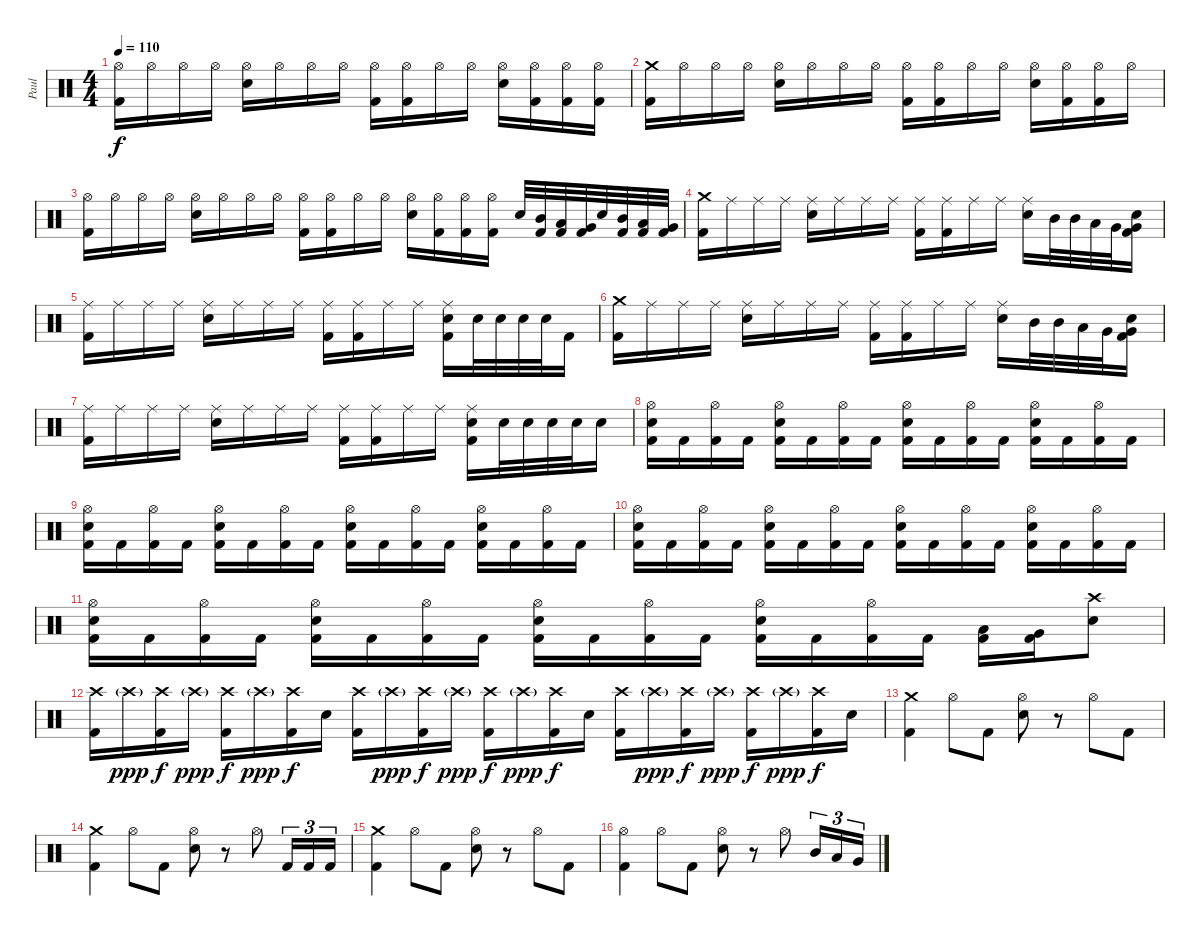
\track ("Paul" "Paul") {solo instrument percussion}
\staff {score}
\articulation defaults
\ts (4 4)
\tempo 110
\clef neutral
\ks c
("Hi-Hat (open)" "Kick (hit) 2").16{dy f} "Hi-Hat (open)".16 "Hi-Hat (open)".16 "Hi-Hat (open)".16 ("Hi-Hat (open)" "Electric Snare (hit)").16 "Hi-Hat (open)".16 "Hi-Hat (open)".16 "Hi-Hat (open)".16 ("Hi-Hat (open)" "Kick (hit) 2").16 ("Hi-Hat (open)" "Kick (hit) 2").16 "Hi-Hat (open)".16 "Hi-Hat (open)".16 ("Hi-Hat (open)" "Electric Snare (hit)").16 ("Hi-Hat (open)" "Kick (hit) 2").16 ("Hi-Hat (open)" "Kick (hit) 2").16 ("Hi-Hat (open)" "Kick (hit) 2").16 |
("Crash medium (hit)" "Kick (hit) 2").16 "Hi-Hat (open)".16 "Hi-Hat (open)".16 "Hi-Hat (open)".16 ("Hi-Hat (open)" "Electric Snare (hit)").16 "Hi-Hat (open)".16 "Hi-Hat (open)".16 "Hi-Hat (open)".16 ("Hi-Hat (open)" "Kick (hit) 2").16 ("Hi-Hat (open)" "Kick (hit) 2").16 "Hi-Hat (open)".16 "Hi-Hat (open)".16 ("Hi-Hat (open)" "Electric Snare (hit)").16 ("Hi-Hat (open)" "Kick (hit) 2").16 ("Hi-Hat (open)" "Kick (hit) 2").16 "Hi-Hat (open)".16 |
("Hi-Hat (open)" "Kick (hit) 2").16 "Hi-Hat (open)".16 "Hi-Hat (open)".16 "Hi-Hat (open)".16 ("Hi-Hat (open)" "Electric Snare (hit)").16 "Hi-Hat (open)".16 "Hi-Hat (open)".16 "Hi-Hat (open)".16 ("Hi-Hat (open)" "Kick (hit) 2").16 ("Hi-Hat (open)" "Kick (hit) 2").16 "Hi-Hat (open)".16 "Hi-Hat (open)".16 ("Hi-Hat (open)" "Electric Snare (hit)").16 ("Hi-Hat (open)" "Kick (hit) 2").16 ("Hi-Hat (open)" "Kick (hit) 2").16 ("Hi-Hat (open)" "Kick (hit) 2").16 "Electric Snare (hit)".32 ("Mid Tom (hit)" "Kick (hit) 2").32 ("Low Tom (hit)" "Kick (hit) 2").32 ("Very Low Tom (hit)" "Kick (hit) 2").32 "Electric Snare (hit)".32 ("Mid Tom (hit)" "Kick (hit) 2").32 ("Low Tom (hit)" "Kick (hit) 2").32 ("Very Low Tom (hit)" "Kick (hit) 2").32 |
("Crash medium (hit)" "Kick (hit) 2").16 "Ride (middle)".16 "Ride (middle)".16 "Ride (middle)".16 ("Ride (middle)" "Electric Snare (hit)").16 "Ride (middle)".16 "Ride (middle)".16 "Ride (middle)".16 ("Ride (middle)" "Kick (hit) 2").16 ("Ride (middle)" "Kick (hit) 2").16 "Ride (middle)".16 "Ride (middle)".16 ("Ride (middle)" "Electric Snare (hit)").16 "Mid Tom (hit)".32 "Mid Tom (hit)".32 "Low Tom (hit)".32 "Very Low Tom (hit)".32 ("Very Low Tom (hit)" "Electric Snare (hit)" "Kick (hit) 2").16 |
("Ride (middle)" "Kick (hit) 2").16 "Ride (middle)".16 "Ride (middle)".16 "Ride (middle)".16 ("Ride (middle)" "Electric Snare (hit)").16 "Ride (middle)".16 "Ride (middle)".16 "Ride (middle)".16 ("Ride (middle)" "Kick (hit) 2").16 ("Ride (middle)" "Kick (hit) 2").16 "Ride (middle)".16 "Ride (middle)".16 ("Ride (middle)" "Electric Snare (hit)" "Kick (hit) 2").16 "Electric Snare (hit)".32 "Electric Snare (hit)".32 "Electric Snare (hit)".32 "Electric Snare (hit)".32 "Kick (hit) 2".16 |
("Crash medium (hit)" "Kick (hit) 2").16 "Ride (middle)".16 "Ride (middle)".16 "Ride (middle)".16 ("Ride (middle)" "Electric Snare (hit)").16 "Ride (middle)".16 "Ride (middle)".16 "Ride (middle)".16 ("Ride (middle)" "Kick (hit) 2").16 ("Ride (middle)" "Kick (hit) 2").16 "Ride (middle)".16 "Ride (middle)".16 ("Ride (middle)" "Electric Snare (hit)").16 "Mid Tom (hit)".32 "Mid Tom (hit)".32 "Low Tom (hit)".32 "Very Low Tom (hit)".32 ("Very Low Tom (hit)" "Electric Snare (hit)" "Kick (hit) 2").16 |
("Ride (middle)" "Kick (hit) 2").16 "Ride (middle)".16 "Ride (middle)".16 "Ride (middle)".16 ("Ride (middle)" "Electric Snare (hit)").16 "Ride (middle)".16 "Ride (middle)".16 "Ride (middle)".16 ("Ride (middle)" "Kick (hit) 2").16 ("Ride (middle)" "Kick (hit) 2").16 "Ride (middle)".16 "Ride (middle)".16 ("Ride (middle)" "Electric Snare (hit)" "Kick (hit) 2").16 "Electric Snare (hit)".32 "Electric Snare (hit)".32 "Electric Snare (hit)".32 "Electric Snare (hit)".32 "Electric Snare (hit)".16 |
("Hi-Hat (open)" "Electric Snare (hit)" "Kick (hit) 2").16 "Kick (hit) 2".16 ("Hi-Hat (open)" "Kick (hit) 2").16 "Kick (hit) 2".16 ("Hi-Hat (open)" "Electric Snare (hit)" "Kick (hit) 2").16 "Kick (hit) 2".16 ("Hi-Hat (open)" "Kick (hit) 2").16 "Kick (hit) 2".16 ("Hi-Hat (open)" "Electric Snare (hit)" "Kick (hit) 2").16 "Kick (hit) 2".16 ("Hi-Hat (open)" "Kick (hit) 2").16 "Kick (hit) 2".16 ("Hi-Hat (open)" "Electric Snare (hit)" "Kick (hit) 2").16 "Kick (hit) 2".16 ("Hi-Hat (open)" "Kick (hit) 2").16 "Kick (hit) 2".16 |
("Hi-Hat (open)" "Electric Snare (hit)" "Kick (hit) 2").16 "Kick (hit) 2".16 ("Hi-Hat (open)" "Kick (hit) 2").16 "Kick (hit) 2".16 ("Hi-Hat (open)" "Electric Snare (hit)" "Kick (hit) 2").16 "Kick (hit) 2".16 ("Hi-Hat (open)" "Kick (hit) 2").16 "Kick (hit) 2".16 ("Hi-Hat (open)" "Electric Snare (hit)" "Kick (hit) 2").16 "Kick (hit) 2".16 ("Hi-Hat (open)" "Kick (hit) 2").16 "Kick (hit) 2".16 ("Hi-Hat (open)" "Electric Snare (hit)" "Kick (hit) 2").16 "Kick (hit) 2".16 ("Hi-Hat (open)" "Kick (hit) 2").16 "Kick (hit) 2".16 |
("Hi-Hat (open)" "Electric Snare (hit)" "Kick (hit) 2").16 "Kick (hit) 2".16 ("Hi-Hat (open)" "Kick (hit) 2").16 "Kick (hit) 2".16 ("Hi-Hat (open)" "Electric Snare (hit)" "Kick (hit) 2").16 "Kick (hit) 2".16 ("Hi-Hat (open)" "Kick (hit) 2").16 "Kick (hit) 2".16 ("Hi-Hat (open)" "Electric Snare (hit)" "Kick (hit) 2").16 "Kick (hit) 2".16 ("Hi-Hat (open)" "Kick (hit) 2").16 "Kick (hit) 2".16 ("Hi-Hat (open)" "Electric Snare (hit)" "Kick (hit) 2").16 "Kick (hit) 2".16 ("Hi-Hat (open)" "Kick (hit) 2").16 "Kick (hit) 2".16 |
("Hi-Hat (open)" "Electric Snare (hit)" "Kick (hit) 2").16 "Kick (hit) 2".16 ("Hi-Hat (open)" "Kick (hit) 2").16 "Kick (hit) 2".16 ("Hi-Hat (open)" "Electric Snare (hit)" "Kick (hit) 2").16 "Kick (hit) 2".16 ("Hi-Hat (open)" "Kick (hit) 2").16 "Kick (hit) 2".16 ("Hi-Hat (open)" "Electric Snare (hit)" "Kick (hit) 2").16 "Kick (hit) 2".16 ("Hi-Hat (open)" "Kick (hit) 2").16 "Kick (hit) 2".16 ("Hi-Hat (open)" "Electric Snare (hit)" "Kick (hit) 2").16 "Kick (hit) 2".16 ("Hi-Hat (open)" "Kick (hit) 2").16 "Kick (hit) 2".16 ("Low Tom (hit)" "Kick (hit) 2").16 ("Very Low Tom (hit)" "Kick (hit) 2").16 ("Crash high (hit)" "Electric Snare (hit)").8 |
("Crash high (hit)" "Kick (hit) 2").16 "Crash high (hit)"{g}.16{dy ppp} ("Crash high (hit)" "Kick (hit) 2").16{dy f} "Crash high (hit)"{g}.16{dy ppp} ("Crash high (hit)" "Kick (hit) 2").16{dy f} "Crash high (hit)"{g}.16{dy ppp} ("Crash high (hit)" "Kick (hit) 2").16{dy f} "Electric Snare (hit)".16 ("Crash high (hit)" "Kick (hit) 2").16 "Crash high (hit)"{g}.16{dy ppp} ("Crash high (hit)" "Kick (hit) 2").16{dy f} "Crash high (hit)"{g}.16{dy ppp} ("Crash high (hit)" "Kick (hit) 2").16{dy f} "Crash high (hit)"{g}.16{dy ppp} ("Crash high (hit)" "Kick (hit) 2").16{dy f} "Electric Snare (hit)".16 ("Crash high (hit)" "Kick (hit) 2").16 "Crash high (hit)"{g}.16{dy ppp} ("Crash high (hit)" "Kick (hit) 2").16{dy f} "Crash high (hit)"{g}.16{dy ppp} ("Crash high (hit)" "Kick (hit) 2").16{dy f} "Crash high (hit)"{g}.16{dy ppp} ("Crash high (hit)" "Kick (hit) 2").16{dy f} "Electric Snare (hit)".16 |
("Crash medium (hit)" "Kick (hit) 2").4 "Hi-Hat (open)".8 "Kick (hit) 2".8 ("Hi-Hat (open)" "Electric Snare (hit)").8 r.8 "Hi-Hat (open)".8 "Kick (hit) 2".8 |
("Crash medium (hit)" "Kick (hit) 2").4 "Hi-Hat (open)".8 "Kick (hit) 2".8 ("Hi-Hat (open)" "Electric Snare (hit)").8 r.8 "Hi-Hat (open)".8 "Kick (hit) 2".16{tu (3 2)} "Kick (hit) 2".16{tu (3 2)} "Kick (hit) 2".16{tu (3 2)} |
("Crash medium (hit)" "Kick (hit) 2").4 "Hi-Hat (open)".8 "Kick (hit) 2".8 ("Hi-Hat (open)" "Electric Snare (hit)").8 r.8 "Hi-Hat (open)".8 "Kick (hit) 2".8 |
("Hi-Hat (open)" "Kick (hit) 2").4 "Hi-Hat (open)".8 "Kick (hit) 2".8 ("Hi-Hat (open)" "Electric Snare (hit)").8 r.8 "Hi-Hat (open)".8 "Mid Tom (hit)".16{tu (3 2)} "Low Tom (hit)".16{tu (3 2)} "Very Low Tom (hit)".16{tu (3 2)}
